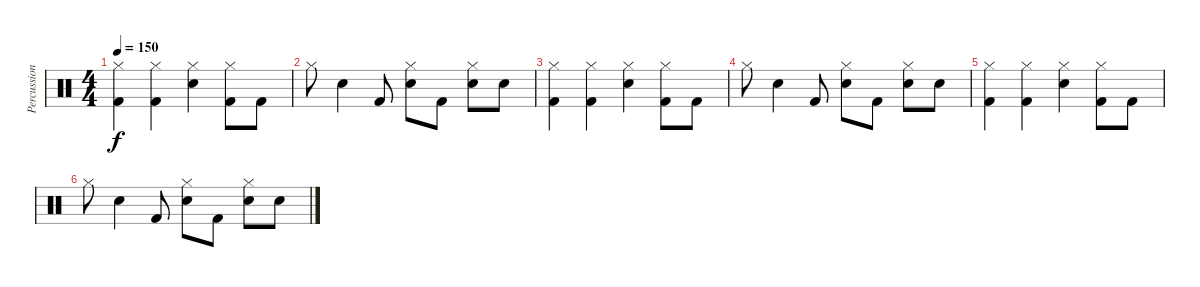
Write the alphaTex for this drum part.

\track ("Percussion" "Percussion") {instrument percussion}
\staff {score}
\articulation defaults
\ts (4 4)
\tempo 150
\clef neutral
\ks c
("Hi-Hat (closed)" "Kick (hit) 2").4{dy f} ("Hi-Hat (closed)" "Kick (hit) 2").4 ("Hi-Hat (closed)" "Snare (hit) 2").4 ("Hi-Hat (closed)" "Kick (hit) 2").8 "Kick (hit) 2".8 |
"Hi-Hat (closed)".8 "Snare (hit) 2".4 "Kick (hit) 2".8 ("Snare (hit) 2" "Hi-Hat (closed)").8 "Kick (hit) 2".8 ("Snare (hit) 2" "Hi-Hat (closed)").8 "Snare (hit) 2".8 |
("Hi-Hat (closed)" "Kick (hit) 2").4 ("Hi-Hat (closed)" "Kick (hit) 2").4 ("Hi-Hat (closed)" "Snare (hit) 2").4 ("Hi-Hat (closed)" "Kick (hit) 2").8 "Kick (hit) 2".8 |
"Hi-Hat (closed)".8 "Snare (hit) 2".4 "Kick (hit) 2".8 ("Snare (hit) 2" "Hi-Hat (closed)").8 "Kick (hit) 2".8 ("Snare (hit) 2" "Hi-Hat (closed)").8 "Snare (hit) 2".8 |
("Hi-Hat (closed)" "Kick (hit) 2").4 ("Hi-Hat (closed)" "Kick (hit) 2").4 ("Hi-Hat (closed)" "Snare (hit) 2").4 ("Hi-Hat (closed)" "Kick (hit) 2").8 "Kick (hit) 2".8 |
"Hi-Hat (closed)".8 "Snare (hit) 2".4 "Kick (hit) 2".8 ("Snare (hit) 2" "Hi-Hat (closed)").8 "Kick (hit) 2".8 ("Snare (hit) 2" "Hi-Hat (closed)").8 "Snare (hit) 2".8
